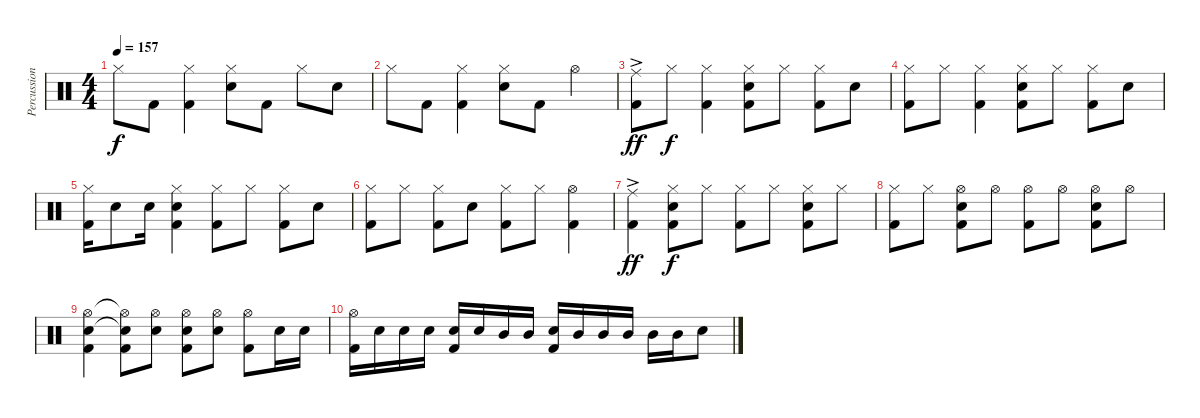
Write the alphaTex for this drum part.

\track ("Percussion" "Percussion") {instrument percussion}
\staff {score}
\articulation defaults
\ts (4 4)
\tempo 157
\clef neutral
\ks c "Hi-Hat (closed)".8{dy f} "Kick (hit) 2".8
("Hi-Hat (closed)" "Kick (hit) 2").4 ("Hi-Hat (closed)" "Snare (hit) 2").8 "Kick (hit) 2".8 "Hi-Hat (closed)".8 "Snare (hit) 2".8 |
"Hi-Hat (closed)".8 "Kick (hit) 2".8 ("Hi-Hat (closed)" "Kick (hit) 2").4 ("Hi-Hat (closed)" "Snare (hit) 2").8 "Kick (hit) 2".8 "Hi-Hat (open)".4 |
("Ride (middle)"{ac} "Kick (hit) 2").8{dy ff} "Hi-Hat (closed)".8{dy f} ("Hi-Hat (closed)" "Kick (hit) 2").4 ("Hi-Hat (closed)" "Snare (hit) 2" "Kick (hit) 2").8 "Hi-Hat (closed)".8 ("Hi-Hat (closed)" "Kick (hit) 2").8 "Snare (hit) 2".8 |
("Hi-Hat (closed)" "Kick (hit) 2").8 "Hi-Hat (closed)".8 ("Hi-Hat (closed)" "Kick (hit) 2").4 ("Hi-Hat (closed)" "Snare (hit) 2" "Kick (hit) 2").8 "Hi-Hat (closed)".8 ("Hi-Hat (closed)" "Kick (hit) 2").8 "Snare (hit) 2".8 |
("Hi-Hat (closed)" "Kick (hit) 2").16 "Snare (hit) 2".8 "Snare (hit) 2".16 ("Hi-Hat (closed)" "Snare (hit) 2" "Kick (hit) 2").4 ("Hi-Hat (closed)" "Kick (hit) 2").8 "Hi-Hat (closed)".8 ("Hi-Hat (closed)" "Kick (hit) 2").8 "Snare (hit) 2".8 |
("Hi-Hat (closed)" "Kick (hit) 2").8 "Hi-Hat (closed)".8 ("Hi-Hat (closed)" "Kick (hit) 2").8 "Snare (hit) 2".8 ("Hi-Hat (closed)" "Kick (hit) 2").8 "Hi-Hat (closed)".8 ("Hi-Hat (open)" "Kick (hit) 2").4 |
("Ride (middle)"{ac} "Kick (hit) 2").4{dy ff} ("Hi-Hat (closed)" "Snare (hit) 2" "Kick (hit) 2").8{dy f} "Hi-Hat (closed)".8 ("Hi-Hat (closed)" "Kick (hit) 2").8 "Hi-Hat (closed)".8 ("Hi-Hat (closed)" "Snare (hit) 2" "Kick (hit) 2").8 "Hi-Hat (closed)".8 |
("Hi-Hat (closed)" "Kick (hit) 2").8 "Hi-Hat (closed)".8 ("Hi-Hat (open)" "Snare (hit) 2" "Kick (hit) 2").8 "Hi-Hat (open)".8 ("Hi-Hat (open)" "Kick (hit) 2").8 "Hi-Hat (open)".8 ("Hi-Hat (open)" "Snare (hit) 2" "Kick (hit) 2").8 "Hi-Hat (open)".8 |
("Hi-Hat (open)" "Snare (hit) 2" "Kick (hit) 2").4 ("Hi-Hat (open)"{t} "Snare (hit) 2"{t} "Kick (hit) 2").8 ("Hi-Hat (open)" "Snare (hit) 2").8 ("Hi-Hat (open)" "Snare (hit) 2" "Kick (hit) 2").8 ("Hi-Hat (open)" "Snare (hit) 2").8 ("Hi-Hat (open)" "Kick (hit) 2").8 "Snare (hit) 2".16 "Snare (hit) 2".16 |
("Hi-Hat (open)" "Kick (hit) 2").16 "Snare (hit) 2".16 "Snare (hit) 2".16 "Snare (hit) 2".16 ("Snare (hit) 2" "Kick (hit) 2").16 "Snare (hit) 2".16 "Mid Tom (hit)".16 "Mid Tom (hit)".16 ("Snare (hit) 2" "Kick (hit) 2").16 "Mid Tom (hit)".16 "Mid Tom (hit)".16 "Mid Tom (hit)".16 "Mid Tom (hit)".16 "Mid Tom (hit)".16 "Snare (hit) 2".8
